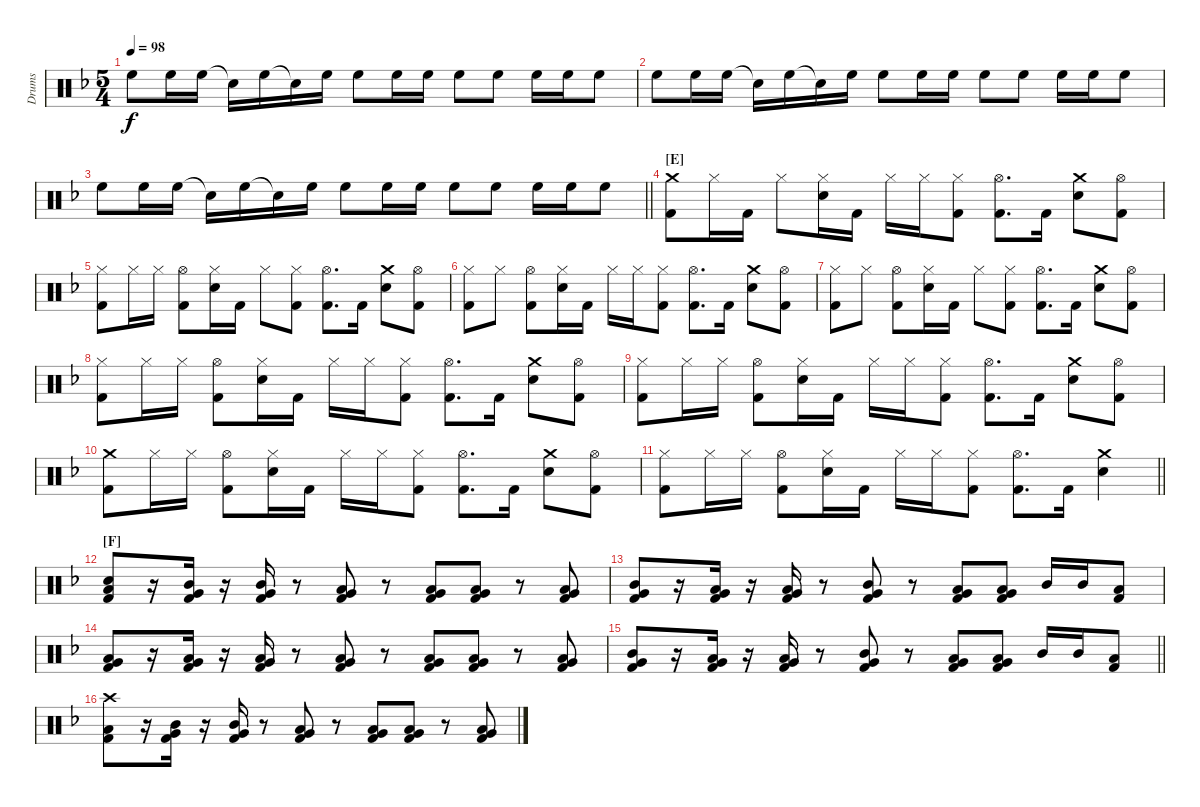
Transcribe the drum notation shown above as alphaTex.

\track ("Drums" "Drums") {instrument percussion}
\staff {score}
\articulation defaults
\ts (5 4)
\tempo 98
\clef neutral
\ks dminor "High Floor Tom (hit)".8{dy f} "High Floor Tom (hit)".16 "High Floor Tom (hit)".16 "Snare (hit)"{t}.16 "High Floor Tom (hit)".16 "Snare (hit)"{t}.16 "High Floor Tom (hit)".16 "High Floor Tom (hit)".8 "High Floor Tom (hit)".16 "High Floor Tom (hit)".16 "High Floor Tom (hit)".8 "High Floor Tom (hit)".8 "High Floor Tom (hit)".16 "High Floor Tom (hit)".16 "High Floor Tom (hit)".8
|
"High Floor Tom (hit)".8 "High Floor Tom (hit)".16 "High Floor Tom (hit)".16 "Snare (hit)"{t}.16 "High Floor Tom (hit)".16 "Snare (hit)"{t}.16 "High Floor Tom (hit)".16 "High Floor Tom (hit)".8 "High Floor Tom (hit)".16 "High Floor Tom (hit)".16 "High Floor Tom (hit)".8 "High Floor Tom (hit)".8 "High Floor Tom (hit)".16 "High Floor Tom (hit)".16 "High Floor Tom (hit)".8 |
\barLineRight lightlight "High Floor Tom (hit)".8 "High Floor Tom (hit)".16 "High Floor Tom (hit)".16 "Snare (hit)"{t}.16 "High Floor Tom (hit)".16 "Snare (hit)"{t}.16 "High Floor Tom (hit)".16 "High Floor Tom (hit)".8 "High Floor Tom (hit)".16 "High Floor Tom (hit)".16 "High Floor Tom (hit)".8 "High Floor Tom (hit)".8 "High Floor Tom (hit)".16 "High Floor Tom (hit)".16 "High Floor Tom (hit)".8
|
\section ("" "[E]")
("Crash medium (hit)" "Kick (hit) 2").8 "Hi-Hat (closed)".16 "Kick (hit) 2".16 "Hi-Hat (closed)".8 ("Hi-Hat (closed)" "Electric Snare (hit)").16 "Kick (hit) 2".16 "Hi-Hat (closed)".16 "Hi-Hat (closed)".16 ("Hi-Hat (closed)" "Kick (hit) 2").8 ("Hi-Hat (open)" "Kick (hit) 2").8{d} "Kick (hit) 2".16 ("Crash medium (hit)" "Electric Snare (hit)").8 ("Hi-Hat (open)" "Kick (hit) 2").8 |
("Hi-Hat (closed)" "Kick (hit) 2").8 "Hi-Hat (closed)".16 "Hi-Hat (closed)".16 ("Hi-Hat (open)" "Kick (hit) 2").8 ("Hi-Hat (closed)" "Electric Snare (hit)").16 "Kick (hit) 2".16 "Hi-Hat (closed)".8 ("Hi-Hat (closed)" "Kick (hit) 2").8 ("Hi-Hat (open)" "Kick (hit) 2").8{d} "Kick (hit) 2".16 ("Crash medium (hit)" "Electric Snare (hit)").8 ("Hi-Hat (open)" "Kick (hit) 2").8 |
("Hi-Hat (closed)" "Kick (hit) 2").8 "Hi-Hat (closed)".8 ("Hi-Hat (open)" "Kick (hit) 2").8 ("Hi-Hat (closed)" "Electric Snare (hit)").16 "Kick (hit) 2".16 "Hi-Hat (closed)".16 "Hi-Hat (closed)".16 ("Hi-Hat (closed)" "Kick (hit) 2").8 ("Hi-Hat (open)" "Kick (hit) 2").8{d} "Kick (hit) 2".16 ("Crash medium (hit)" "Electric Snare (hit)").8 ("Hi-Hat (open)" "Kick (hit) 2").8 |
("Hi-Hat (closed)" "Kick (hit) 2").8 "Hi-Hat (closed)".8 ("Hi-Hat (open)" "Kick (hit) 2").8 ("Hi-Hat (closed)" "Electric Snare (hit)").16 "Kick (hit) 2".16 "Hi-Hat (closed)".8 ("Hi-Hat (closed)" "Kick (hit) 2").8 ("Hi-Hat (open)" "Kick (hit) 2").8{d} "Kick (hit) 2".16 ("Crash medium (hit)" "Electric Snare (hit)").8 ("Hi-Hat (open)" "Kick (hit) 2").8 |
("Hi-Hat (closed)" "Kick (hit) 2").8 "Hi-Hat (closed)".16 "Hi-Hat (closed)".16 ("Hi-Hat (open)" "Kick (hit) 2").8 ("Hi-Hat (closed)" "Electric Snare (hit)").16 "Kick (hit) 2".16 "Hi-Hat (closed)".16 "Hi-Hat (closed)".16 ("Hi-Hat (closed)" "Kick (hit) 2").8 ("Hi-Hat (open)" "Kick (hit) 2").8{d} "Kick (hit) 2".16 ("Crash medium (hit)" "Electric Snare (hit)").8 ("Hi-Hat (open)" "Kick (hit) 2").8 |
("Hi-Hat (closed)" "Kick (hit) 2").8 "Hi-Hat (closed)".16 "Hi-Hat (closed)".16 ("Hi-Hat (open)" "Kick (hit) 2").8 ("Hi-Hat (closed)" "Electric Snare (hit)").16 "Kick (hit) 2".16 "Hi-Hat (closed)".16 "Hi-Hat (closed)".16 ("Hi-Hat (closed)" "Kick (hit) 2").8 ("Hi-Hat (open)" "Kick (hit) 2").8{d} "Kick (hit) 2".16 ("Crash medium (hit)" "Electric Snare (hit)").8 ("Hi-Hat (open)" "Kick (hit) 2").8 |
("Crash medium (hit)" "Kick (hit) 2").8 "Hi-Hat (closed)".16 "Hi-Hat (closed)".16 ("Hi-Hat (open)" "Kick (hit) 2").8 ("Hi-Hat (closed)" "Electric Snare (hit)").16 "Kick (hit) 2".16 "Hi-Hat (closed)".16 "Hi-Hat (closed)".16 ("Hi-Hat (closed)" "Kick (hit) 2").8 ("Hi-Hat (open)" "Kick (hit) 2").8{d} "Kick (hit) 2".16 ("Crash medium (hit)" "Electric Snare (hit)").8 ("Hi-Hat (open)" "Kick (hit) 2").8 |
\barLineRight lightlight
("Hi-Hat (closed)" "Kick (hit) 2").8 "Hi-Hat (closed)".16 "Hi-Hat (closed)".16 ("Hi-Hat (open)" "Kick (hit) 2").8 ("Hi-Hat (closed)" "Electric Snare (hit)").16 "Kick (hit) 2".16 "Hi-Hat (closed)".16 "Hi-Hat (closed)".16 ("Hi-Hat (closed)" "Kick (hit) 2").8 ("Hi-Hat (open)" "Kick (hit) 2").8{d} "Kick (hit) 2".16 ("Crash medium (hit)" "Electric Snare (hit)").4 |
\section ("" "[F]")
("Low Tom (hit)" "Electric Snare (hit)" "Kick (hit) 2").8 r.16 ("Mid Tom (hit)" "Very Low Tom (hit)" "Kick (hit) 2").16 r.16 ("Mid Tom (hit)" "Very Low Tom (hit)" "Kick (hit) 2").16 r.8 ("Low Tom (hit)" "Very Low Tom (hit)" "Kick (hit) 2").8 r.8 ("Low Tom (hit)" "Very Low Tom (hit)" "Kick (hit) 2").8 ("Low Tom (hit)" "Very Low Tom (hit)" "Kick (hit) 2").8 r.8 ("Low Tom (hit)" "Very Low Tom (hit)" "Kick (hit) 2").8 |
("Mid Tom (hit)" "Very Low Tom (hit)" "Kick (hit) 2").8 r.16 ("Low Tom (hit)" "Very Low Tom (hit)" "Kick (hit) 2").16 r.16 ("Low Tom (hit)" "Very Low Tom (hit)" "Kick (hit) 2").16 r.8 ("Mid Tom (hit)" "Very Low Tom (hit)" "Kick (hit) 2").8 r.8 ("Low Tom (hit)" "Very Low Tom (hit)" "Kick (hit) 2").8 ("Low Tom (hit)" "Very Low Tom (hit)" "Kick (hit) 2").8 "Mid Tom (hit)".16 "Mid Tom (hit)".16 ("Low Tom (hit)" "Kick (hit) 2").8 |
("Low Tom (hit)" "Very Low Tom (hit)" "Kick (hit) 2").8 r.16 ("Low Tom (hit)" "Very Low Tom (hit)" "Kick (hit) 2").16 r.16 ("Low Tom (hit)" "Very Low Tom (hit)" "Kick (hit) 2").16 r.8 ("Low Tom (hit)" "Very Low Tom (hit)" "Kick (hit) 2").8 r.8 ("Low Tom (hit)" "Very Low Tom (hit)" "Kick (hit) 2").8 ("Low Tom (hit)" "Very Low Tom (hit)" "Kick (hit) 2").8 r.8 ("Low Tom (hit)" "Very Low Tom (hit)" "Kick (hit) 2").8 |
\barLineRight lightlight
("Mid Tom (hit)" "Very Low Tom (hit)" "Kick (hit) 2").8 r.16 ("Low Tom (hit)" "Very Low Tom (hit)" "Kick (hit) 2").16 r.16 ("Low Tom (hit)" "Very Low Tom (hit)" "Kick (hit) 2").16 r.8 ("Mid Tom (hit)" "Very Low Tom (hit)" "Kick (hit) 2").8 r.8 ("Low Tom (hit)" "Very Low Tom (hit)" "Kick (hit) 2").8 ("Low Tom (hit)" "Very Low Tom (hit)" "Kick (hit) 2").8 "Mid Tom (hit)".16 "Mid Tom (hit)".16 ("Low Tom (hit)" "Kick (hit) 2").8 |
("Crash high (hit)" "Low Tom (hit)" "Kick (hit) 2").8 r.16 ("Mid Tom (hit)" "Very Low Tom (hit)" "Kick (hit) 2").16 r.16 ("Mid Tom (hit)" "Very Low Tom (hit)" "Kick (hit) 2").16 r.8 ("Low Tom (hit)" "Very Low Tom (hit)" "Kick (hit) 2").8 r.8 ("Low Tom (hit)" "Very Low Tom (hit)" "Kick (hit) 2").8 ("Low Tom (hit)" "Very Low Tom (hit)" "Kick (hit) 2").8 r.8 ("Low Tom (hit)" "Very Low Tom (hit)" "Kick (hit) 2").8
